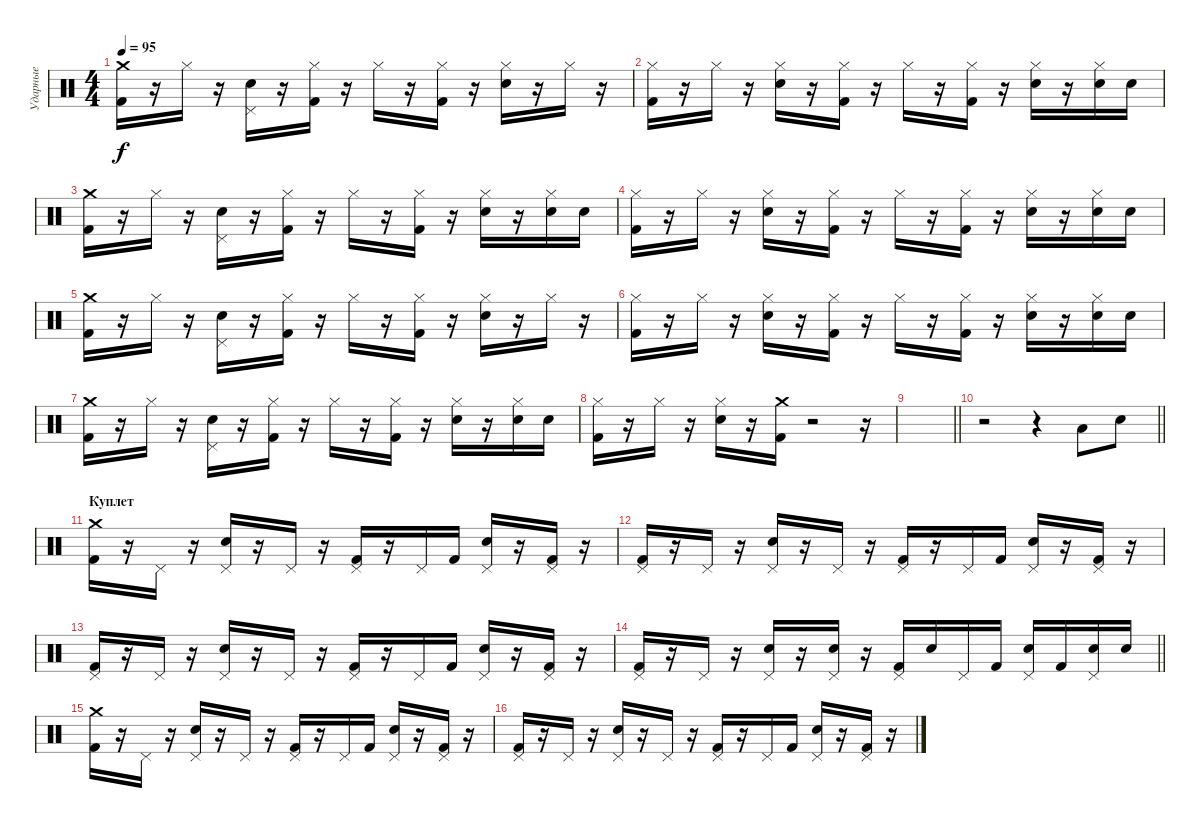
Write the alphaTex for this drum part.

\track ("Ударные" "Ударные") {instrument percussion}
\staff {score}
\articulation defaults
\ts (4 4)
\tempo 95
\clef neutral
\ks c
("Crash medium (hit)" "Kick (hit) 2").16{dy f} r.16 "Hi-Hat (closed)".16 r.16 ("Pedal Hi-Hat (hit)" "Electric Snare (hit)").16 r.16 ("Hi-Hat (closed)" "Kick (hit) 2").16 r.16 "Hi-Hat (closed)".16 r.16 ("Hi-Hat (closed)" "Kick (hit) 2").16 r.16 ("Hi-Hat (closed)" "Electric Snare (hit)").16 r.16 "Hi-Hat (closed)".16 r.16 |
("Hi-Hat (closed)" "Kick (hit) 2").16 r.16 "Hi-Hat (closed)".16 r.16 ("Hi-Hat (closed)" "Electric Snare (hit)").16 r.16 ("Hi-Hat (closed)" "Kick (hit) 2").16 r.16 "Hi-Hat (closed)".16 r.16 ("Hi-Hat (closed)" "Kick (hit) 2").16 r.16 ("Hi-Hat (closed)" "Electric Snare (hit)").16 r.16 ("Hi-Hat (closed)" "Electric Snare (hit)").16 "Electric Snare (hit)".16 |
("Crash medium (hit)" "Kick (hit) 2").16 r.16 "Hi-Hat (closed)".16 r.16 ("Pedal Hi-Hat (hit)" "Electric Snare (hit)").16 r.16 ("Hi-Hat (closed)" "Kick (hit) 2").16 r.16 "Hi-Hat (closed)".16 r.16 ("Hi-Hat (closed)" "Kick (hit) 2").16 r.16 ("Hi-Hat (closed)" "Electric Snare (hit)").16 r.16 ("Hi-Hat (closed)" "Electric Snare (hit)").16 "Electric Snare (hit)".16 |
("Hi-Hat (closed)" "Kick (hit) 2").16 r.16 "Hi-Hat (closed)".16 r.16 ("Hi-Hat (closed)" "Electric Snare (hit)").16 r.16 ("Hi-Hat (closed)" "Kick (hit) 2").16 r.16 "Hi-Hat (closed)".16 r.16 ("Hi-Hat (closed)" "Kick (hit) 2").16 r.16 ("Hi-Hat (closed)" "Electric Snare (hit)").16 r.16 ("Hi-Hat (closed)" "Electric Snare (hit)").16 "Electric Snare (hit)".16 |
("Crash medium (hit)" "Kick (hit) 2").16 r.16 "Hi-Hat (closed)".16 r.16 ("Pedal Hi-Hat (hit)" "Electric Snare (hit)").16 r.16 ("Hi-Hat (closed)" "Kick (hit) 2").16 r.16 "Hi-Hat (closed)".16 r.16 ("Hi-Hat (closed)" "Kick (hit) 2").16 r.16 ("Hi-Hat (closed)" "Electric Snare (hit)").16 r.16 "Hi-Hat (closed)".16 r.16 |
("Hi-Hat (closed)" "Kick (hit) 2").16 r.16 "Hi-Hat (closed)".16 r.16 ("Hi-Hat (closed)" "Electric Snare (hit)").16 r.16 ("Hi-Hat (closed)" "Kick (hit) 2").16 r.16 "Hi-Hat (closed)".16 r.16 ("Hi-Hat (closed)" "Kick (hit) 2").16 r.16 ("Hi-Hat (closed)" "Electric Snare (hit)").16 r.16 ("Hi-Hat (closed)" "Electric Snare (hit)").16 "Electric Snare (hit)".16 |
("Crash medium (hit)" "Kick (hit) 2").16 r.16 "Hi-Hat (closed)".16 r.16 ("Pedal Hi-Hat (hit)" "Electric Snare (hit)").16 r.16 ("Hi-Hat (closed)" "Kick (hit) 2").16 r.16 "Hi-Hat (closed)".16 r.16 ("Hi-Hat (closed)" "Kick (hit) 2").16 r.16 ("Hi-Hat (closed)" "Electric Snare (hit)").16 r.16 ("Hi-Hat (closed)" "Electric Snare (hit)").16 "Electric Snare (hit)".16 |
("Hi-Hat (closed)" "Kick (hit) 2").16 r.16 "Hi-Hat (closed)".16 r.16 ("Hi-Hat (closed)" "Electric Snare (hit)").16 r.16 ("Crash medium (hit)" "Kick (hit) 2").16 r.2 r.16 |
\barLineRight lightlight
|
\barLineRight lightlight
r.2 r.4 "Low Tom (hit)".8 "Electric Snare (hit)".8 |
\section ("" "Куплет")
("Crash medium (hit)" "Kick (hit) 2").16 r.16 "Pedal Hi-Hat (hit)".16 r.16 ("Pedal Hi-Hat (hit)" "Electric Snare (hit)").16 r.16 "Pedal Hi-Hat (hit)".16 r.16 ("Pedal Hi-Hat (hit)" "Kick (hit) 2").16 r.16 "Pedal Hi-Hat (hit)".16 "Kick (hit) 2".16 ("Pedal Hi-Hat (hit)" "Electric Snare (hit)").16 r.16 ("Pedal Hi-Hat (hit)" "Kick (hit) 2").16 r.16 |
("Pedal Hi-Hat (hit)" "Kick (hit) 2").16 r.16 "Pedal Hi-Hat (hit)".16 r.16 ("Pedal Hi-Hat (hit)" "Electric Snare (hit)").16 r.16 "Pedal Hi-Hat (hit)".16 r.16 ("Pedal Hi-Hat (hit)" "Kick (hit) 2").16 r.16 "Pedal Hi-Hat (hit)".16 "Kick (hit) 2".16 ("Pedal Hi-Hat (hit)" "Electric Snare (hit)").16 r.16 ("Pedal Hi-Hat (hit)" "Kick (hit) 2").16 r.16 |
("Pedal Hi-Hat (hit)" "Kick (hit) 2").16 r.16 "Pedal Hi-Hat (hit)".16 r.16 ("Pedal Hi-Hat (hit)" "Electric Snare (hit)").16 r.16 "Pedal Hi-Hat (hit)".16 r.16 ("Pedal Hi-Hat (hit)" "Kick (hit) 2").16 r.16 "Pedal Hi-Hat (hit)".16 "Kick (hit) 2".16 ("Pedal Hi-Hat (hit)" "Electric Snare (hit)").16 r.16 ("Pedal Hi-Hat (hit)" "Kick (hit) 2").16 r.16 |
\barLineRight lightlight
("Pedal Hi-Hat (hit)" "Kick (hit) 2").16 r.16 "Pedal Hi-Hat (hit)".16 r.16 ("Pedal Hi-Hat (hit)" "Electric Snare (hit)").16 r.16 ("Pedal Hi-Hat (hit)" "Electric Snare (hit)").16 r.16 ("Pedal Hi-Hat (hit)" "Kick (hit) 2").16 "Electric Snare (hit)".16 "Pedal Hi-Hat (hit)".16 "Kick (hit) 2".16 ("Pedal Hi-Hat (hit)" "Electric Snare (hit)").16 "Kick (hit) 2".16 ("Pedal Hi-Hat (hit)" "Electric Snare (hit)").16 "Electric Snare (hit)".16 |
("Crash medium (hit)" "Kick (hit) 2").16 r.16 "Pedal Hi-Hat (hit)".16 r.16 ("Pedal Hi-Hat (hit)" "Electric Snare (hit)").16 r.16 "Pedal Hi-Hat (hit)".16 r.16 ("Pedal Hi-Hat (hit)" "Kick (hit) 2").16 r.16 "Pedal Hi-Hat (hit)".16 "Kick (hit) 2".16 ("Pedal Hi-Hat (hit)" "Electric Snare (hit)").16 r.16 ("Pedal Hi-Hat (hit)" "Kick (hit) 2").16 r.16 |
("Pedal Hi-Hat (hit)" "Kick (hit) 2").16 r.16 "Pedal Hi-Hat (hit)".16 r.16 ("Pedal Hi-Hat (hit)" "Electric Snare (hit)").16 r.16 "Pedal Hi-Hat (hit)".16 r.16 ("Pedal Hi-Hat (hit)" "Kick (hit) 2").16 r.16 "Pedal Hi-Hat (hit)".16 "Kick (hit) 2".16 ("Pedal Hi-Hat (hit)" "Electric Snare (hit)").16 r.16 ("Pedal Hi-Hat (hit)" "Kick (hit) 2").16 r.16
